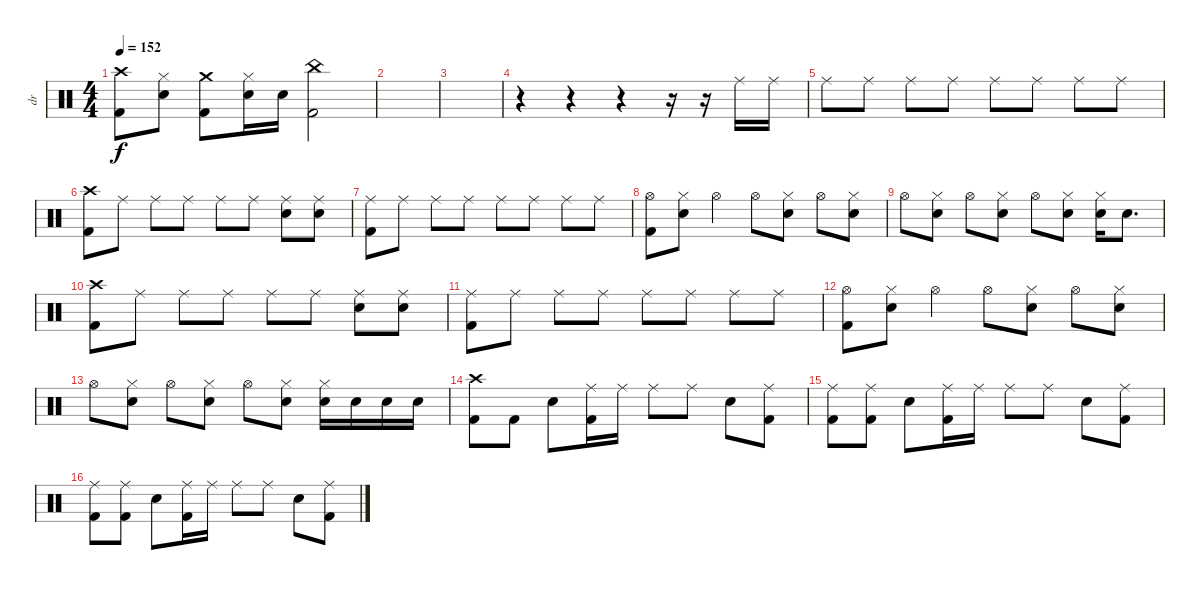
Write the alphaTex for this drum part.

\track ("dr" "dr") {instrument percussion}
\staff {score}
\articulation defaults
\ts (4 4)
\tempo 152
\clef neutral
\ks c
("Crash high (hit)" "Kick (hit) 2").8{dy f} ("Hi-Hat (closed)" "Electric Snare (hit)").8 ("Crash medium (hit)" "Kick (hit) 2").8 ("Hi-Hat (closed)" "Electric Snare (hit)").16 "Electric Snare (hit)".16 ("China (hit)" "Kick (hit) 2").2 |
|
|
r.4 r.4 r.4 r.16 r.16 "Ride (middle)".16 "Ride (middle)".16 |
"Ride (middle)".8 "Ride (middle)".8 "Ride (middle)".8 "Ride (middle)".8 "Ride (middle)".8 "Ride (middle)".8 "Ride (middle)".8 "Ride (middle)".8 |
("Kick (hit) 2" "Crash high (hit)").8 "Ride (middle)".8 "Ride (middle)".8 "Ride (middle)".8 "Ride (middle)".8 "Ride (middle)".8 ("Electric Snare (hit)" "Ride (middle)").8 ("Electric Snare (hit)" "Ride (middle)").8 |
("Kick (hit) 2" "Ride (middle)").8 "Ride (middle)".8 "Ride (middle)".8 "Ride (middle)".8 "Ride (middle)".8 "Ride (middle)".8 "Ride (middle)".8 "Ride (middle)".8 |
("Kick (hit) 2" "Hi-Hat (open)").8 ("Electric Snare (hit)" "Hi-Hat (closed)").8 "Hi-Hat (open)".4 "Hi-Hat (open)".8 ("Electric Snare (hit)" "Hi-Hat (closed)").8 "Hi-Hat (open)".8 ("Electric Snare (hit)" "Hi-Hat (closed)").8 |
"Hi-Hat (open)".8 ("Electric Snare (hit)" "Hi-Hat (closed)").8 "Hi-Hat (open)".8 ("Electric Snare (hit)" "Hi-Hat (closed)").8 "Hi-Hat (open)".8 ("Electric Snare (hit)" "Hi-Hat (closed)").8 ("Electric Snare (hit)" "Hi-Hat (closed)").16 "Electric Snare (hit)".8{d} |
("Kick (hit) 2" "Crash high (hit)").8 "Ride (middle)".8 "Ride (middle)".8 "Ride (middle)".8 "Ride (middle)".8 "Ride (middle)".8 ("Electric Snare (hit)" "Ride (middle)").8 ("Electric Snare (hit)" "Ride (middle)").8 |
("Kick (hit) 2" "Ride (middle)").8 "Ride (middle)".8 "Ride (middle)".8 "Ride (middle)".8 "Ride (middle)".8 "Ride (middle)".8 "Ride (middle)".8 "Ride (middle)".8 |
("Kick (hit) 2" "Hi-Hat (open)").8 ("Electric Snare (hit)" "Hi-Hat (closed)").8 "Hi-Hat (open)".4 "Hi-Hat (open)".8 ("Electric Snare (hit)" "Hi-Hat (closed)").8 "Hi-Hat (open)".8 ("Electric Snare (hit)" "Hi-Hat (closed)").8 |
"Hi-Hat (open)".8 ("Electric Snare (hit)" "Hi-Hat (closed)").8 "Hi-Hat (open)".8 ("Electric Snare (hit)" "Hi-Hat (closed)").8 "Hi-Hat (open)".8 ("Electric Snare (hit)" "Hi-Hat (closed)").8 ("Electric Snare (hit)" "Hi-Hat (closed)").16 "Electric Snare (hit)".16 "Electric Snare (hit)".16 "Electric Snare (hit)".16 |
("Kick (hit) 2" "Crash high (hit)").8 "Kick (hit) 2".8 "Electric Snare (hit)".8 ("Kick (hit) 2" "Ride (middle)").16 "Ride (middle)".16 "Ride (middle)".8 "Ride (middle)".8 "Electric Snare (hit)".8 ("Kick (hit) 2" "Ride (middle)").8 |
("Kick (hit) 2" "Ride (middle)").8 ("Kick (hit) 2" "Ride (middle)").8 "Electric Snare (hit)".8 ("Kick (hit) 2" "Ride (middle)").16 "Ride (middle)".16 "Ride (middle)".8 "Ride (middle)".8 "Electric Snare (hit)".8 ("Kick (hit) 2" "Ride (middle)").8 |
("Kick (hit) 2" "Ride (middle)").8 ("Kick (hit) 2" "Ride (middle)").8 "Electric Snare (hit)".8 ("Kick (hit) 2" "Ride (middle)").16 "Ride (middle)".16 "Ride (middle)".8 "Ride (middle)".8 "Electric Snare (hit)".8 ("Kick (hit) 2" "Ride (middle)").8
